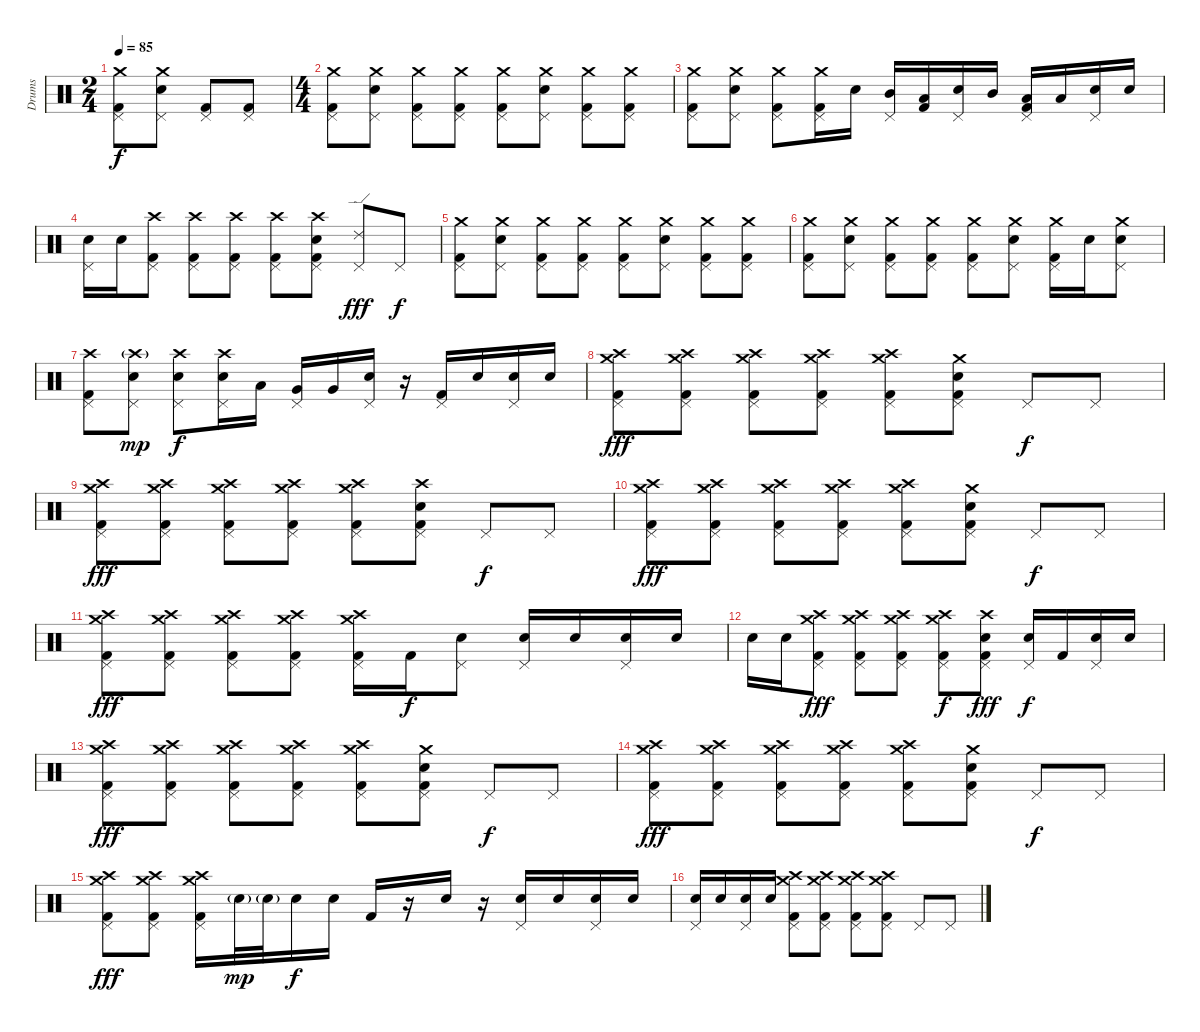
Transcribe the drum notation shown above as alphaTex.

\track ("Drums" "Drums") {instrument percussion}
\staff {score}
\articulation defaults
\ts (2 4)
\tempo 85
\clef neutral
\ks c
("Crash medium (hit)" "Pedal Hi-Hat (hit)" "Kick (hit) 2").8{dy f} ("Crash medium (hit)" "Electric Snare (hit)" "Pedal Hi-Hat (hit)").8 ("Pedal Hi-Hat (hit)" "Kick (hit) 2").8 ("Pedal Hi-Hat (hit)" "Kick (hit) 2").8 |
\ts (4 4)
("Crash medium (hit)" "Pedal Hi-Hat (hit)" "Kick (hit) 2").8 ("Crash medium (hit)" "Electric Snare (hit)" "Pedal Hi-Hat (hit)").8 ("Crash medium (hit)" "Pedal Hi-Hat (hit)" "Kick (hit) 2").8 ("Crash medium (hit)" "Pedal Hi-Hat (hit)" "Kick (hit) 2").8 ("Crash medium (hit)" "Pedal Hi-Hat (hit)" "Kick (hit) 2").8 ("Crash medium (hit)" "Electric Snare (hit)" "Pedal Hi-Hat (hit)").8 ("Crash medium (hit)" "Pedal Hi-Hat (hit)" "Kick (hit) 2").8 ("Crash medium (hit)" "Pedal Hi-Hat (hit)" "Kick (hit) 2").8 |
("Crash medium (hit)" "Pedal Hi-Hat (hit)" "Kick (hit) 2").8 ("Crash medium (hit)" "Electric Snare (hit)" "Pedal Hi-Hat (hit)").8 ("Crash medium (hit)" "Pedal Hi-Hat (hit)" "Kick (hit) 2").8 ("Crash medium (hit)" "Pedal Hi-Hat (hit)" "Kick (hit) 2").16 "Electric Snare (hit)".16 ("Mid Tom (hit)" "Pedal Hi-Hat (hit)").16 ("Low Floor Tom (hit)" "Kick (hit) 2").16 ("Electric Snare (hit)" "Pedal Hi-Hat (hit)").16 "Mid Tom (hit)".16 ("Low Floor Tom (hit)" "Pedal Hi-Hat (hit)" "Kick (hit) 2").16 "Low Floor Tom (hit)".16 ("Electric Snare (hit)" "Pedal Hi-Hat (hit)").16 "Electric Snare (hit)".16 |
("Electric Snare (hit)" "Pedal Hi-Hat (hit)").16 "Electric Snare (hit)".16 ("Crash high (hit)" "Pedal Hi-Hat (hit)" "Kick (hit) 2").8 ("Crash high (hit)" "Pedal Hi-Hat (hit)" "Kick (hit) 2").8 ("Crash high (hit)" "Pedal Hi-Hat (hit)" "Kick (hit) 2").8 ("Crash high (hit)" "Pedal Hi-Hat (hit)" "Kick (hit) 2").8 ("Crash high (hit)" "Electric Snare (hit)" "Pedal Hi-Hat (hit)" "Kick (hit) 2").8 ("Ride (edge) 2" "Pedal Hi-Hat (hit)").8{dy fff} "Pedal Hi-Hat (hit)".8{dy f} |
("Crash medium (hit)" "Pedal Hi-Hat (hit)" "Kick (hit) 2").8 ("Crash medium (hit)" "Electric Snare (hit)" "Pedal Hi-Hat (hit)").8 ("Crash medium (hit)" "Pedal Hi-Hat (hit)" "Kick (hit) 2").8 ("Crash medium (hit)" "Pedal Hi-Hat (hit)" "Kick (hit) 2").8 ("Crash medium (hit)" "Pedal Hi-Hat (hit)" "Kick (hit) 2").8 ("Crash medium (hit)" "Electric Snare (hit)" "Pedal Hi-Hat (hit)").8 ("Crash medium (hit)" "Pedal Hi-Hat (hit)" "Kick (hit) 2").8 ("Crash medium (hit)" "Pedal Hi-Hat (hit)" "Kick (hit) 2").8 |
("Crash medium (hit)" "Pedal Hi-Hat (hit)" "Kick (hit) 2").8 ("Crash medium (hit)" "Electric Snare (hit)" "Pedal Hi-Hat (hit)").8 ("Crash medium (hit)" "Pedal Hi-Hat (hit)" "Kick (hit) 2").8 ("Crash medium (hit)" "Pedal Hi-Hat (hit)" "Kick (hit) 2").8 ("Crash medium (hit)" "Pedal Hi-Hat (hit)" "Kick (hit) 2").8 ("Crash medium (hit)" "Electric Snare (hit)" "Pedal Hi-Hat (hit)").8 ("Crash medium (hit)" "Pedal Hi-Hat (hit)" "Kick (hit) 2").16 "Electric Snare (hit)".16 ("Crash medium (hit)" "Electric Snare (hit)" "Pedal Hi-Hat (hit)").8 |
("Crash high (hit)" "Pedal Hi-Hat (hit)" "Kick (hit) 2").8 ("Crash high (hit)"{g} "Electric Snare (hit)" "Pedal Hi-Hat (hit)").8{dy mp} ("Crash high (hit)" "Electric Snare (hit)" "Pedal Hi-Hat (hit)").8{dy f} ("Crash high (hit)" "Electric Snare (hit)" "Pedal Hi-Hat (hit)").16 "Low Tom (hit)".16 ("Very Low Tom (hit)" "Pedal Hi-Hat (hit)").16 "Very Low Tom (hit)".16 ("Electric Snare (hit)" "Pedal Hi-Hat (hit)").16 r.16 ("Pedal Hi-Hat (hit)" "Kick (hit) 2").16 "Electric Snare (hit)".16 ("Electric Snare (hit)" "Pedal Hi-Hat (hit)").16 "Electric Snare (hit)".16 |
("Crash medium (hit)" "Crash high (hit)" "Pedal Hi-Hat (hit)" "Kick (hit) 2").8{dy fff} ("Crash medium (hit)" "Crash high (hit)" "Pedal Hi-Hat (hit)" "Kick (hit) 2").8 ("Crash medium (hit)" "Crash high (hit)" "Pedal Hi-Hat (hit)" "Kick (hit) 2").8 ("Crash medium (hit)" "Crash high (hit)" "Pedal Hi-Hat (hit)" "Kick (hit) 2").8 ("Crash medium (hit)" "Crash high (hit)" "Pedal Hi-Hat (hit)" "Kick (hit) 2").8 ("Crash medium (hit)" "Electric Snare (hit)" "Pedal Hi-Hat (hit)" "Kick (hit) 2").8 "Pedal Hi-Hat (hit)".8{dy f} "Pedal Hi-Hat (hit)".8 |
("Crash medium (hit)" "Crash high (hit)" "Pedal Hi-Hat (hit)" "Kick (hit) 2").8{dy fff} ("Crash medium (hit)" "Crash high (hit)" "Pedal Hi-Hat (hit)" "Kick (hit) 2").8 ("Crash medium (hit)" "Crash high (hit)" "Pedal Hi-Hat (hit)" "Kick (hit) 2").8 ("Crash medium (hit)" "Crash high (hit)" "Pedal Hi-Hat (hit)" "Kick (hit) 2").8 ("Crash medium (hit)" "Crash high (hit)" "Pedal Hi-Hat (hit)" "Kick (hit) 2").8 ("Crash high (hit)" "Electric Snare (hit)" "Pedal Hi-Hat (hit)" "Kick (hit) 2").8 "Pedal Hi-Hat (hit)".8{dy f} "Pedal Hi-Hat (hit)".8 |
("Crash medium (hit)" "Crash high (hit)" "Pedal Hi-Hat (hit)" "Kick (hit) 2").8{dy fff} ("Crash medium (hit)" "Crash high (hit)" "Pedal Hi-Hat (hit)" "Kick (hit) 2").8 ("Crash medium (hit)" "Crash high (hit)" "Pedal Hi-Hat (hit)" "Kick (hit) 2").8 ("Crash medium (hit)" "Crash high (hit)" "Pedal Hi-Hat (hit)" "Kick (hit) 2").8 ("Crash medium (hit)" "Crash high (hit)" "Pedal Hi-Hat (hit)" "Kick (hit) 2").8 ("Crash medium (hit)" "Electric Snare (hit)" "Pedal Hi-Hat (hit)" "Kick (hit) 2").8 "Pedal Hi-Hat (hit)".8{dy f} "Pedal Hi-Hat (hit)".8 |
("Crash medium (hit)" "Crash high (hit)" "Pedal Hi-Hat (hit)" "Kick (hit) 2").8{dy fff} ("Crash medium (hit)" "Crash high (hit)" "Pedal Hi-Hat (hit)" "Kick (hit) 2").8 ("Crash medium (hit)" "Crash high (hit)" "Pedal Hi-Hat (hit)" "Kick (hit) 2").8 ("Crash medium (hit)" "Crash high (hit)" "Pedal Hi-Hat (hit)" "Kick (hit) 2").8 ("Crash medium (hit)" "Crash high (hit)" "Pedal Hi-Hat (hit)" "Kick (hit) 2").16 "Kick (hit) 2".16{dy f} ("Electric Snare (hit)" "Pedal Hi-Hat (hit)").8 ("Electric Snare (hit)" "Pedal Hi-Hat (hit)").16 "Electric Snare (hit)".16 ("Electric Snare (hit)" "Pedal Hi-Hat (hit)").16 "Electric Snare (hit)".16 |
"Electric Snare (hit)".16 "Electric Snare (hit)".16 ("Crash medium (hit)" "Crash high (hit)" "Pedal Hi-Hat (hit)" "Kick (hit) 2").8{dy fff} ("Crash medium (hit)" "Crash high (hit)" "Pedal Hi-Hat (hit)" "Kick (hit) 2").8 ("Crash medium (hit)" "Crash high (hit)" "Pedal Hi-Hat (hit)" "Kick (hit) 2").8 ("Crash medium (hit)" "Crash high (hit)" "Pedal Hi-Hat (hit)" "Kick (hit) 2").8{dy f} ("Crash high (hit)" "Electric Snare (hit)" "Pedal Hi-Hat (hit)" "Kick (hit) 2").8{dy fff} ("Electric Snare (hit)" "Pedal Hi-Hat (hit)").16{dy f} "Kick (hit) 2".16 ("Electric Snare (hit)" "Pedal Hi-Hat (hit)").16 "Electric Snare (hit)".16 |
("Crash medium (hit)" "Crash high (hit)" "Pedal Hi-Hat (hit)" "Kick (hit) 2").8{dy fff} ("Crash medium (hit)" "Crash high (hit)" "Pedal Hi-Hat (hit)" "Kick (hit) 2").8 ("Crash medium (hit)" "Crash high (hit)" "Pedal Hi-Hat (hit)" "Kick (hit) 2").8 ("Crash medium (hit)" "Crash high (hit)" "Pedal Hi-Hat (hit)" "Kick (hit) 2").8 ("Crash medium (hit)" "Crash high (hit)" "Pedal Hi-Hat (hit)" "Kick (hit) 2").8 ("Crash medium (hit)" "Electric Snare (hit)" "Pedal Hi-Hat (hit)" "Kick (hit) 2").8 "Pedal Hi-Hat (hit)".8{dy f} "Pedal Hi-Hat (hit)".8 |
("Crash medium (hit)" "Crash high (hit)" "Pedal Hi-Hat (hit)" "Kick (hit) 2").8{dy fff} ("Crash medium (hit)" "Crash high (hit)" "Pedal Hi-Hat (hit)" "Kick (hit) 2").8 ("Crash medium (hit)" "Crash high (hit)" "Pedal Hi-Hat (hit)" "Kick (hit) 2").8 ("Crash medium (hit)" "Crash high (hit)" "Pedal Hi-Hat (hit)" "Kick (hit) 2").8 ("Crash medium (hit)" "Crash high (hit)" "Pedal Hi-Hat (hit)" "Kick (hit) 2").8 ("Crash medium (hit)" "Electric Snare (hit)" "Pedal Hi-Hat (hit)" "Kick (hit) 2").8 "Pedal Hi-Hat (hit)".8{dy f} "Pedal Hi-Hat (hit)".8 |
("Crash medium (hit)" "Crash high (hit)" "Pedal Hi-Hat (hit)" "Kick (hit) 2").8{dy fff} ("Crash medium (hit)" "Crash high (hit)" "Pedal Hi-Hat (hit)" "Kick (hit) 2").8 ("Crash medium (hit)" "Crash high (hit)" "Pedal Hi-Hat (hit)" "Kick (hit) 2").16 "Electric Snare (hit)"{g}.32{dy mp} "Electric Snare (hit)"{g}.32 "Electric Snare (hit)".16{dy f} "Electric Snare (hit)".16 "Kick (hit) 2".16 r.16 "Electric Snare (hit)".16 r.16 ("Electric Snare (hit)" "Pedal Hi-Hat (hit)").16 "Electric Snare (hit)".16 ("Electric Snare (hit)" "Pedal Hi-Hat (hit)").16 "Electric Snare (hit)".16 |
("Electric Snare (hit)" "Pedal Hi-Hat (hit)").16 "Electric Snare (hit)".16 ("Electric Snare (hit)" "Pedal Hi-Hat (hit)").16 "Electric Snare (hit)".16 ("Crash medium (hit)" "Crash high (hit)" "Pedal Hi-Hat (hit)" "Kick (hit) 2").8 ("Crash medium (hit)" "Crash high (hit)" "Pedal Hi-Hat (hit)" "Kick (hit) 2").8 ("Crash medium (hit)" "Crash high (hit)" "Pedal Hi-Hat (hit)" "Kick (hit) 2").8 ("Crash medium (hit)" "Crash high (hit)" "Pedal Hi-Hat (hit)" "Kick (hit) 2").8 "Pedal Hi-Hat (hit)".8 "Pedal Hi-Hat (hit)".8
